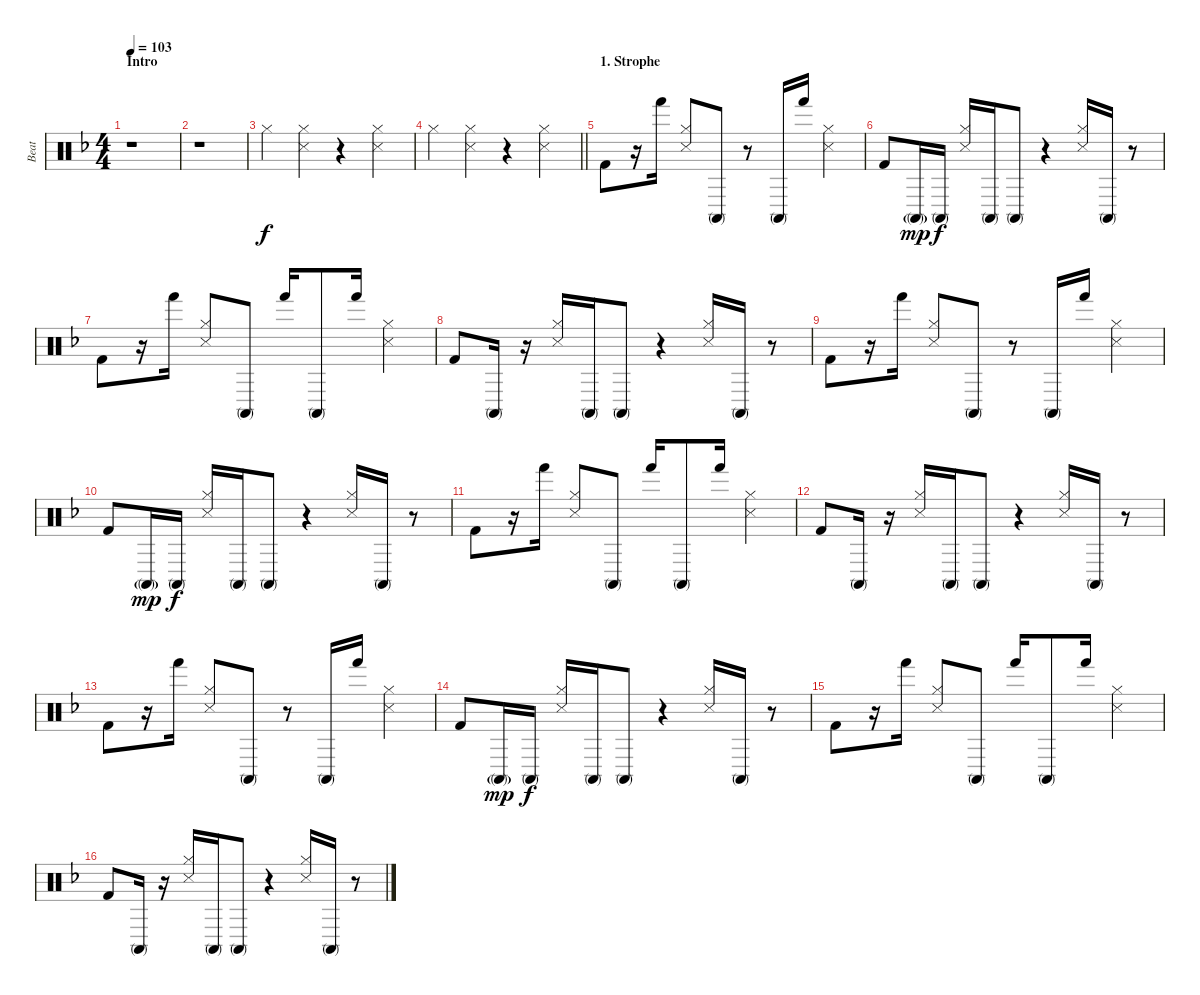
\track ("Beat" "Beat") {instrument percussion}
\staff {score}
\articulation defaults
\ts (4 4)
\section ("" "Intro")
\tempo 103
\clef neutral
\ks dminor
r.1{dy f} |
r.1 |
"Hi-Hat (closed)".4 ("Hi-Hat (closed)" "Snare (side stick) 3").4 r.4 ("Hi-Hat (closed)" "Snare (side stick) 3").4 |
\barLineRight lightlight "Hi-Hat (closed)".4
("Hi-Hat (closed)" "Snare (side stick) 3").4 r.4 ("Hi-Hat (closed)" "Snare (side stick) 3").4 |
\section ("" "1. Strophe")
"Kick (hit) 2".8 r.16 "Hand (hit)".16 ("Hi-Hat (closed)" "Snare (side stick) 3").8 "Conga high (mute)".8 r.8 "Conga high (mute)".16 "Hand (hit)".16 ("Hi-Hat (closed)" "Snare (side stick) 3").4 |
"Kick (hit) 2".8 "Conga high (mute)"{g}.16{dy mp} "Conga high (mute)".16{dy f} ("Hi-Hat (closed)" "Snare (side stick) 3").16 "Conga high (mute)".16 "Conga high (mute)".8 r.4 ("Hi-Hat (closed)" "Snare (side stick) 3").16 "Conga high (mute)".16 r.8 |
"Kick (hit) 2".8 r.16 "Hand (hit)".16 ("Hi-Hat (closed)" "Snare (side stick) 3").8 "Conga high (mute)".8 "Hand (hit)".16 "Conga high (mute)".8 "Hand (hit)".16 ("Hi-Hat (closed)" "Snare (side stick) 3").4 |
"Kick (hit) 2".8 "Conga high (mute)".16 r.16 ("Hi-Hat (closed)" "Snare (side stick) 3").16 "Conga high (mute)".16 "Conga high (mute)".8 r.4 ("Hi-Hat (closed)" "Snare (side stick) 3").16 "Conga high (mute)".16 r.8 |
"Kick (hit) 2".8 r.16 "Hand (hit)".16 ("Hi-Hat (closed)" "Snare (side stick) 3").8 "Conga high (mute)".8 r.8 "Conga high (mute)".16 "Hand (hit)".16 ("Hi-Hat (closed)" "Snare (side stick) 3").4 |
"Kick (hit) 2".8 "Conga high (mute)"{g}.16{dy mp} "Conga high (mute)".16{dy f} ("Hi-Hat (closed)" "Snare (side stick) 3").16 "Conga high (mute)".16 "Conga high (mute)".8 r.4 ("Hi-Hat (closed)" "Snare (side stick) 3").16 "Conga high (mute)".16 r.8 |
"Kick (hit) 2".8 r.16 "Hand (hit)".16 ("Hi-Hat (closed)" "Snare (side stick) 3").8 "Conga high (mute)".8 "Hand (hit)".16 "Conga high (mute)".8 "Hand (hit)".16 ("Hi-Hat (closed)" "Snare (side stick) 3").4 |
"Kick (hit) 2".8 "Conga high (mute)".16 r.16 ("Hi-Hat (closed)" "Snare (side stick) 3").16 "Conga high (mute)".16 "Conga high (mute)".8 r.4 ("Hi-Hat (closed)" "Snare (side stick) 3").16 "Conga high (mute)".16 r.8 |
"Kick (hit) 2".8 r.16 "Hand (hit)".16 ("Hi-Hat (closed)" "Snare (side stick) 3").8 "Conga high (mute)".8 r.8 "Conga high (mute)".16 "Hand (hit)".16 ("Hi-Hat (closed)" "Snare (side stick) 3").4 |
"Kick (hit) 2".8 "Conga high (mute)"{g}.16{dy mp} "Conga high (mute)".16{dy f} ("Hi-Hat (closed)" "Snare (side stick) 3").16 "Conga high (mute)".16 "Conga high (mute)".8 r.4 ("Hi-Hat (closed)" "Snare (side stick) 3").16 "Conga high (mute)".16 r.8 |
"Kick (hit) 2".8 r.16 "Hand (hit)".16 ("Hi-Hat (closed)" "Snare (side stick) 3").8 "Conga high (mute)".8 "Hand (hit)".16 "Conga high (mute)".8 "Hand (hit)".16 ("Hi-Hat (closed)" "Snare (side stick) 3").4 |
"Kick (hit) 2".8 "Conga high (mute)".16 r.16 ("Hi-Hat (closed)" "Snare (side stick) 3").16 "Conga high (mute)".16 "Conga high (mute)".8 r.4 ("Hi-Hat (closed)" "Snare (side stick) 3").16 "Conga high (mute)".16 r.8
